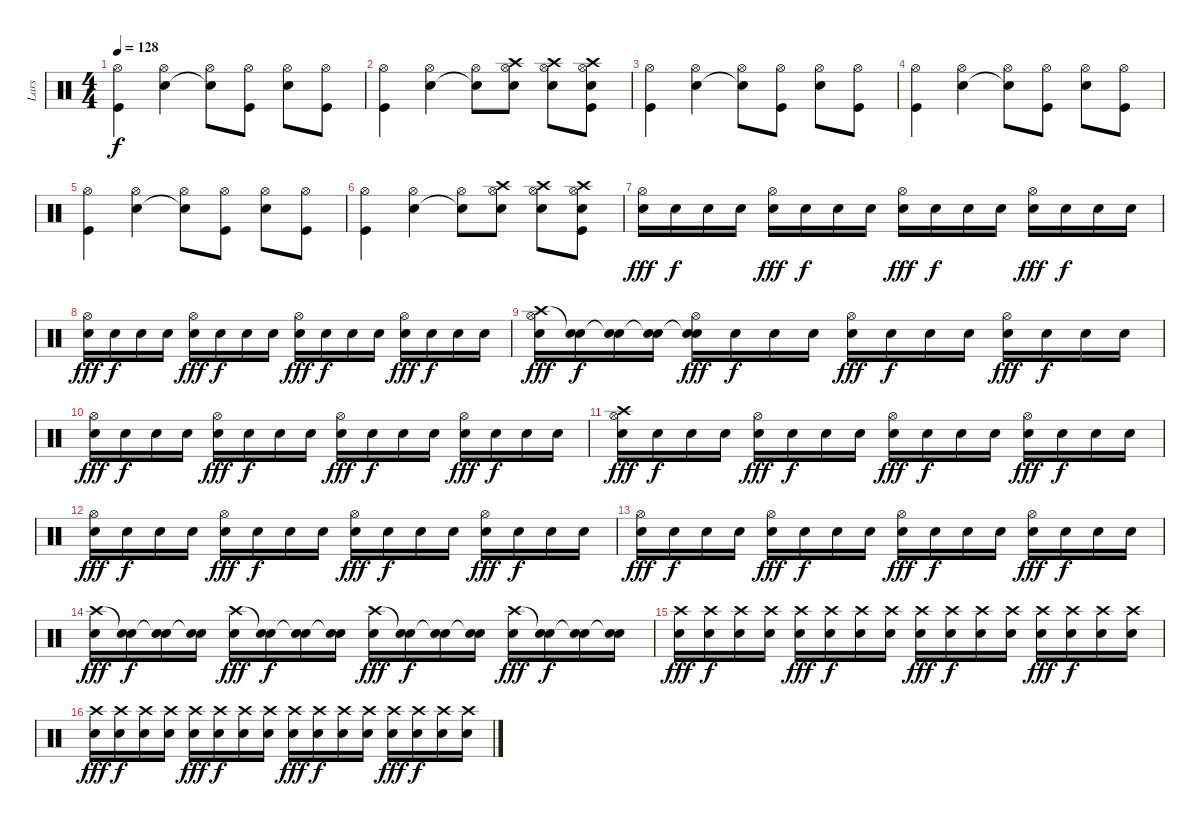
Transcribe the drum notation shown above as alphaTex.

\track ("Lars" "Lars") {instrument percussion}
\staff {score}
\articulation defaults
\ts (4 4)
\tempo 128
\clef neutral
\ks c
("Hi-Hat (open)" "Kick (hit)").4{dy f} ("Hi-Hat (open)" "Snare (hit) 2").4 ("Hi-Hat (open)" "Snare (hit)"{t}).8 ("Hi-Hat (open)" "Kick (hit)").8 ("Hi-Hat (open)" "Snare (hit) 2").8 ("Hi-Hat (open)" "Kick (hit)").8 |
("Hi-Hat (open)" "Kick (hit)").4 ("Hi-Hat (open)" "Snare (hit) 2").4 ("Hi-Hat (open)" "Snare (hit)"{t}).8 ("Crash high (hit)" "Hi-Hat (open)" "Snare (hit) 2").8 ("Crash high (hit)" "Hi-Hat (open)" "Snare (hit) 2").8 ("Crash high (hit)" "Hi-Hat (open)" "Snare (hit) 2" "Kick (hit)").8 |
("Hi-Hat (open)" "Kick (hit)").4 ("Hi-Hat (open)" "Snare (hit) 2").4 ("Hi-Hat (open)" "Snare (hit)"{t}).8 ("Hi-Hat (open)" "Kick (hit)").8 ("Hi-Hat (open)" "Snare (hit) 2").8 ("Hi-Hat (open)" "Kick (hit)").8 |
("Hi-Hat (open)" "Kick (hit)").4 ("Hi-Hat (open)" "Snare (hit) 2").4 ("Hi-Hat (open)" "Snare (hit)"{t}).8 ("Hi-Hat (open)" "Kick (hit)").8 ("Hi-Hat (open)" "Snare (hit) 2").8 ("Hi-Hat (open)" "Kick (hit)").8 |
("Hi-Hat (open)" "Kick (hit)").4 ("Hi-Hat (open)" "Snare (hit) 2").4 ("Hi-Hat (open)" "Snare (hit)"{t}).8 ("Hi-Hat (open)" "Kick (hit)").8 ("Hi-Hat (open)" "Snare (hit) 2").8 ("Hi-Hat (open)" "Kick (hit)").8 |
("Hi-Hat (open)" "Kick (hit)").4 ("Hi-Hat (open)" "Snare (hit) 2").4 ("Hi-Hat (open)" "Snare (hit)"{t}).8 ("Crash high (hit)" "Hi-Hat (open)" "Snare (hit) 2").8 ("Crash high (hit)" "Hi-Hat (open)" "Snare (hit) 2").8 ("Crash high (hit)" "Hi-Hat (open)" "Snare (hit) 2" "Kick (hit)").8 |
("Hi-Hat (open)" "Snare (hit) 2").16{dy fff} "Snare (hit) 2".16{dy f} "Snare (hit) 2".16 "Snare (hit) 2".16 ("Hi-Hat (open)" "Snare (hit) 2").16{dy fff} "Snare (hit) 2".16{dy f} "Snare (hit) 2".16 "Snare (hit) 2".16 ("Hi-Hat (open)" "Snare (hit) 2").16{dy fff} "Snare (hit) 2".16{dy f} "Snare (hit) 2".16 "Snare (hit) 2".16 ("Hi-Hat (open)" "Snare (hit) 2").16{dy fff} "Snare (hit) 2".16{dy f} "Snare (hit) 2".16 "Snare (hit) 2".16 |
("Hi-Hat (open)" "Snare (hit) 2").16{dy fff} "Snare (hit) 2".16{dy f} "Snare (hit) 2".16 "Snare (hit) 2".16 ("Hi-Hat (open)" "Snare (hit) 2").16{dy fff} "Snare (hit) 2".16{dy f} "Snare (hit) 2".16 "Snare (hit) 2".16 ("Hi-Hat (open)" "Snare (hit) 2").16{dy fff} "Snare (hit) 2".16{dy f} "Snare (hit) 2".16 "Snare (hit) 2".16 ("Hi-Hat (open)" "Snare (hit) 2").16{dy fff} "Snare (hit) 2".16{dy f} "Snare (hit) 2".16 "Snare (hit) 2".16 |
("Crash high (hit)" "Hi-Hat (open)" "Snare (hit) 2").16{dy fff} ("Snare (hit)"{t} "Snare (hit) 2").16{dy f} ("Snare (hit)"{t} "Snare (hit) 2").16 ("Snare (hit)"{t} "Snare (hit) 2").16 ("Snare (hit)"{t} "Hi-Hat (open)" "Snare (hit) 2").16{dy fff} "Snare (hit) 2".16{dy f} "Snare (hit) 2".16 "Snare (hit) 2".16 ("Hi-Hat (open)" "Snare (hit) 2").16{dy fff} "Snare (hit) 2".16{dy f} "Snare (hit) 2".16 "Snare (hit) 2".16 ("Hi-Hat (open)" "Snare (hit) 2").16{dy fff} "Snare (hit) 2".16{dy f} "Snare (hit) 2".16 "Snare (hit) 2".16 |
("Hi-Hat (open)" "Snare (hit) 2").16{dy fff} "Snare (hit) 2".16{dy f} "Snare (hit) 2".16 "Snare (hit) 2".16 ("Hi-Hat (open)" "Snare (hit) 2").16{dy fff} "Snare (hit) 2".16{dy f} "Snare (hit) 2".16 "Snare (hit) 2".16 ("Hi-Hat (open)" "Snare (hit) 2").16{dy fff} "Snare (hit) 2".16{dy f} "Snare (hit) 2".16 "Snare (hit) 2".16 ("Hi-Hat (open)" "Snare (hit) 2").16{dy fff} "Snare (hit) 2".16{dy f} "Snare (hit) 2".16 "Snare (hit) 2".16 |
("Crash high (hit)" "Hi-Hat (open)" "Snare (hit) 2").16{dy fff} "Snare (hit) 2".16{dy f} "Snare (hit) 2".16 "Snare (hit) 2".16 ("Hi-Hat (open)" "Snare (hit) 2").16{dy fff} "Snare (hit) 2".16{dy f} "Snare (hit) 2".16 "Snare (hit) 2".16 ("Hi-Hat (open)" "Snare (hit) 2").16{dy fff} "Snare (hit) 2".16{dy f} "Snare (hit) 2".16 "Snare (hit) 2".16 ("Hi-Hat (open)" "Snare (hit) 2").16{dy fff} "Snare (hit) 2".16{dy f} "Snare (hit) 2".16 "Snare (hit) 2".16 |
("Hi-Hat (open)" "Snare (hit) 2").16{dy fff} "Snare (hit) 2".16{dy f} "Snare (hit) 2".16 "Snare (hit) 2".16 ("Hi-Hat (open)" "Snare (hit) 2").16{dy fff} "Snare (hit) 2".16{dy f} "Snare (hit) 2".16 "Snare (hit) 2".16 ("Hi-Hat (open)" "Snare (hit) 2").16{dy fff} "Snare (hit) 2".16{dy f} "Snare (hit) 2".16 "Snare (hit) 2".16 ("Hi-Hat (open)" "Snare (hit) 2").16{dy fff} "Snare (hit) 2".16{dy f} "Snare (hit) 2".16 "Snare (hit) 2".16 |
("Hi-Hat (open)" "Snare (hit) 2").16{dy fff} "Snare (hit) 2".16{dy f} "Snare (hit) 2".16 "Snare (hit) 2".16 ("Hi-Hat (open)" "Snare (hit) 2").16{dy fff} "Snare (hit) 2".16{dy f} "Snare (hit) 2".16 "Snare (hit) 2".16 ("Hi-Hat (open)" "Snare (hit) 2").16{dy fff} "Snare (hit) 2".16{dy f} "Snare (hit) 2".16 "Snare (hit) 2".16 ("Hi-Hat (open)" "Snare (hit) 2").16{dy fff} "Snare (hit) 2".16{dy f} "Snare (hit) 2".16 "Snare (hit) 2".16 |
("Crash high (hit)" "Snare (hit) 2").16{dy fff} ("Snare (hit)"{t} "Snare (hit) 2").16{dy f} ("Snare (hit)"{t} "Snare (hit) 2").16 ("Snare (hit)"{t} "Snare (hit) 2").16 ("Crash high (hit)" "Snare (hit) 2").16{dy fff} ("Snare (hit)"{t} "Snare (hit) 2").16{dy f} ("Snare (hit)"{t} "Snare (hit) 2").16 ("Snare (hit)"{t} "Snare (hit) 2").16 ("Crash high (hit)" "Snare (hit) 2").16{dy fff} ("Snare (hit)"{t} "Snare (hit) 2").16{dy f} ("Snare (hit)"{t} "Snare (hit) 2").16 ("Snare (hit)"{t} "Snare (hit) 2").16 ("Crash high (hit)" "Snare (hit) 2").16{dy fff} ("Snare (hit)"{t} "Snare (hit) 2").16{dy f} ("Snare (hit)"{t} "Snare (hit) 2").16 ("Snare (hit)"{t} "Snare (hit) 2").16 |
("Crash high (hit)" "Snare (hit) 2").16{dy fff} ("Crash high (hit)" "Snare (hit) 2").16{dy f} ("Crash high (hit)" "Snare (hit) 2").16 ("Crash high (hit)" "Snare (hit) 2").16 ("Crash high (hit)" "Snare (hit) 2").16{dy fff} ("Crash high (hit)" "Snare (hit) 2").16{dy f} ("Crash high (hit)" "Snare (hit) 2").16 ("Crash high (hit)" "Snare (hit) 2").16 ("Crash high (hit)" "Snare (hit) 2").16{dy fff} ("Crash high (hit)" "Snare (hit) 2").16{dy f} ("Crash high (hit)" "Snare (hit) 2").16 ("Crash high (hit)" "Snare (hit) 2").16 ("Crash high (hit)" "Snare (hit) 2").16{dy fff} ("Crash high (hit)" "Snare (hit) 2").16{dy f} ("Crash high (hit)" "Snare (hit) 2").16 ("Crash high (hit)" "Snare (hit) 2").16 |
("Crash high (hit)" "Snare (hit) 2").16{dy fff} ("Crash high (hit)" "Snare (hit) 2").16{dy f} ("Crash high (hit)" "Snare (hit) 2").16 ("Crash high (hit)" "Snare (hit) 2").16 ("Crash high (hit)" "Snare (hit) 2").16{dy fff} ("Crash high (hit)" "Snare (hit) 2").16{dy f} ("Crash high (hit)" "Snare (hit) 2").16 ("Crash high (hit)" "Snare (hit) 2").16 ("Crash high (hit)" "Snare (hit) 2").16{dy fff} ("Crash high (hit)" "Snare (hit) 2").16{dy f} ("Crash high (hit)" "Snare (hit) 2").16 ("Crash high (hit)" "Snare (hit) 2").16 ("Crash high (hit)" "Snare (hit) 2").16{dy fff} ("Crash high (hit)" "Snare (hit) 2").16{dy f} ("Crash high (hit)" "Snare (hit) 2").16 ("Crash high (hit)" "Snare (hit) 2").16
